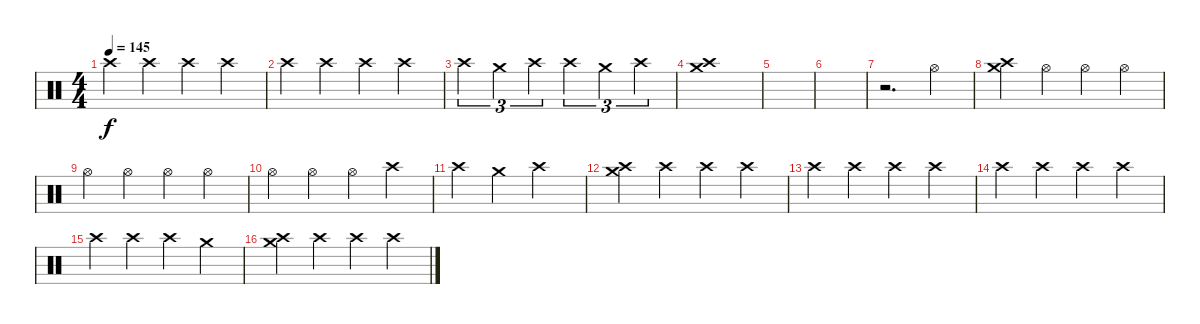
\track "" {instrument percussion}
\staff {score}
\articulation defaults
\ts (4 4)
\tempo 145
\clef neutral
\ks c "Crash high (hit)".4{dy f} "Crash high (hit)".4 "Crash high (hit)".4 "Crash high (hit)".4
|
"Crash high (hit)".4 "Crash high (hit)".4 "Crash high (hit)".4 "Crash high (hit)".4 |
"Crash high (hit)".4{tu (3 2)} "Crash medium (hit)".4{tu (3 2)} "Crash high (hit)".4{tu (3 2)} "Crash high (hit)".4{tu (3 2)} "Crash medium (hit)".4{tu (3 2)} "Crash high (hit)".4{tu (3 2)} |
("Crash medium (hit)" "Crash high (hit)").1 |
|
|
r.2{d} "Hi-Hat (open)".4 |
("Crash medium (hit)" "Crash high (hit)").4 "Hi-Hat (open)".4 "Hi-Hat (open)".4 "Hi-Hat (open)".4 |
"Hi-Hat (open)".4 "Hi-Hat (open)".4 "Hi-Hat (open)".4 "Hi-Hat (open)".4 |
"Hi-Hat (open)".4 "Hi-Hat (open)".4 "Hi-Hat (open)".4 "Crash high (hit)".4 |
"Crash high (hit)".4 "Crash medium (hit)".4 "Crash high (hit)".2 |
("Crash medium (hit)" "Crash high (hit)").4 "Crash high (hit)".4 "Crash high (hit)".4 "Crash high (hit)".4 |
"Crash high (hit)".4 "Crash high (hit)".4 "Crash high (hit)".4 "Crash high (hit)".4 |
"Crash high (hit)".4 "Crash high (hit)".4 "Crash high (hit)".4 "Crash high (hit)".4 |
"Crash high (hit)".4 "Crash high (hit)".4 "Crash high (hit)".4 "Crash medium (hit)".4 |
("Crash medium (hit)" "Crash high (hit)").4 "Crash high (hit)".4 "Crash high (hit)".4 "Crash high (hit)".4
